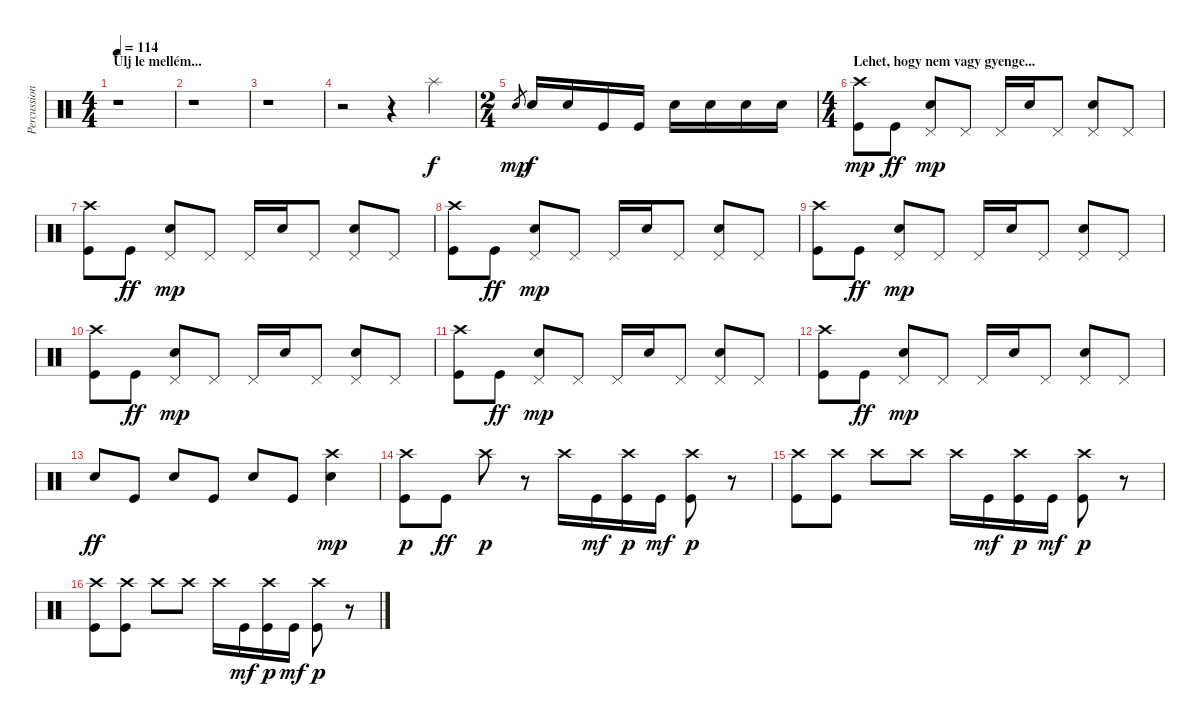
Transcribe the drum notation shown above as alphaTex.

\track ("Percussion" "Percussion") {instrument percussion}
\staff {score}
\articulation defaults
\ts (4 4)
\section ("" "Ülj le mellém...")
\tempo 114
\clef neutral
\ks c
r.1{dy f} |
r.1 |
r.1 |
r.2 r.4 "Splash (hit)".4 |
\ts (2 4)
"Electric Snare (hit)".8{gr dy mp} "Electric Snare (hit)".16{dy f} "Electric Snare (hit)".16 "Kick (hit)".16 "Kick (hit)".16 "Electric Snare (hit)".16 "Electric Snare (hit)".16 "Electric Snare (hit)".16 "Electric Snare (hit)".16 |
\ts (4 4)
\section ("" "Lehet, hogy nem vagy gyenge...")
("Kick (hit)" "Crash high (hit)").8{dy mp} "Kick (hit)".8{dy ff} ("Electric Snare (hit)" "Pedal Hi-Hat (hit)").8{dy mp} "Pedal Hi-Hat (hit)".8 "Pedal Hi-Hat (hit)".16 "Electric Snare (hit)".16 "Pedal Hi-Hat (hit)".8 ("Electric Snare (hit)" "Pedal Hi-Hat (hit)").8 "Pedal Hi-Hat (hit)".8 |
("Kick (hit)" "Crash high (hit)").8 "Kick (hit)".8{dy ff} ("Electric Snare (hit)" "Pedal Hi-Hat (hit)").8{dy mp} "Pedal Hi-Hat (hit)".8 "Pedal Hi-Hat (hit)".16 "Electric Snare (hit)".16 "Pedal Hi-Hat (hit)".8 ("Electric Snare (hit)" "Pedal Hi-Hat (hit)").8 "Pedal Hi-Hat (hit)".8 |
("Kick (hit)" "Crash high (hit)").8 "Kick (hit)".8{dy ff} ("Electric Snare (hit)" "Pedal Hi-Hat (hit)").8{dy mp} "Pedal Hi-Hat (hit)".8 "Pedal Hi-Hat (hit)".16 "Electric Snare (hit)".16 "Pedal Hi-Hat (hit)".8 ("Electric Snare (hit)" "Pedal Hi-Hat (hit)").8 "Pedal Hi-Hat (hit)".8 |
("Kick (hit)" "Crash high (hit)").8 "Kick (hit)".8{dy ff} ("Electric Snare (hit)" "Pedal Hi-Hat (hit)").8{dy mp} "Pedal Hi-Hat (hit)".8 "Pedal Hi-Hat (hit)".16 "Electric Snare (hit)".16 "Pedal Hi-Hat (hit)".8 ("Electric Snare (hit)" "Pedal Hi-Hat (hit)").8 "Pedal Hi-Hat (hit)".8 |
("Kick (hit)" "Crash high (hit)").8 "Kick (hit)".8{dy ff} ("Electric Snare (hit)" "Pedal Hi-Hat (hit)").8{dy mp} "Pedal Hi-Hat (hit)".8 "Pedal Hi-Hat (hit)".16 "Electric Snare (hit)".16 "Pedal Hi-Hat (hit)".8 ("Electric Snare (hit)" "Pedal Hi-Hat (hit)").8 "Pedal Hi-Hat (hit)".8 |
("Kick (hit)" "Crash high (hit)").8 "Kick (hit)".8{dy ff} ("Electric Snare (hit)" "Pedal Hi-Hat (hit)").8{dy mp} "Pedal Hi-Hat (hit)".8 "Pedal Hi-Hat (hit)".16 "Electric Snare (hit)".16 "Pedal Hi-Hat (hit)".8 ("Electric Snare (hit)" "Pedal Hi-Hat (hit)").8 "Pedal Hi-Hat (hit)".8 |
("Kick (hit)" "Crash high (hit)").8 "Kick (hit)".8{dy ff} ("Electric Snare (hit)" "Pedal Hi-Hat (hit)").8{dy mp} "Pedal Hi-Hat (hit)".8 "Pedal Hi-Hat (hit)".16 "Electric Snare (hit)".16 "Pedal Hi-Hat (hit)".8 ("Electric Snare (hit)" "Pedal Hi-Hat (hit)").8 "Pedal Hi-Hat (hit)".8 |
"Electric Snare (hit)".8{dy ff} "Kick (hit)".8 "Electric Snare (hit)".8 "Kick (hit)".8 "Electric Snare (hit)".8 "Kick (hit)".8 ("Electric Snare (hit)" "Crash high (hit)").4{dy mp} |
("Kick (hit)" "Crash high (hit)").8{dy p} "Kick (hit)".8{dy ff} "Crash high (hit)".8{dy p} r.8 "Crash high (hit)".16 "Kick (hit)".16{dy mf} ("Kick (hit)" "Crash high (hit)").16{dy p} "Kick (hit)".16{dy mf} ("Kick (hit)" "Crash high (hit)").8{dy p} r.8 |
("Kick (hit)" "Crash high (hit)").8 ("Kick (hit)" "Crash high (hit)").8 "Crash high (hit)".8 "Crash high (hit)".8 "Crash high (hit)".16 "Kick (hit)".16{dy mf} ("Kick (hit)" "Crash high (hit)").16{dy p} "Kick (hit)".16{dy mf} ("Kick (hit)" "Crash high (hit)").8{dy p} r.8 |
("Kick (hit)" "Crash high (hit)").8 ("Kick (hit)" "Crash high (hit)").8 "Crash high (hit)".8 "Crash high (hit)".8 "Crash high (hit)".16 "Kick (hit)".16{dy mf} ("Kick (hit)" "Crash high (hit)").16{dy p} "Kick (hit)".16{dy mf} ("Kick (hit)" "Crash high (hit)").8{dy p} r.8
